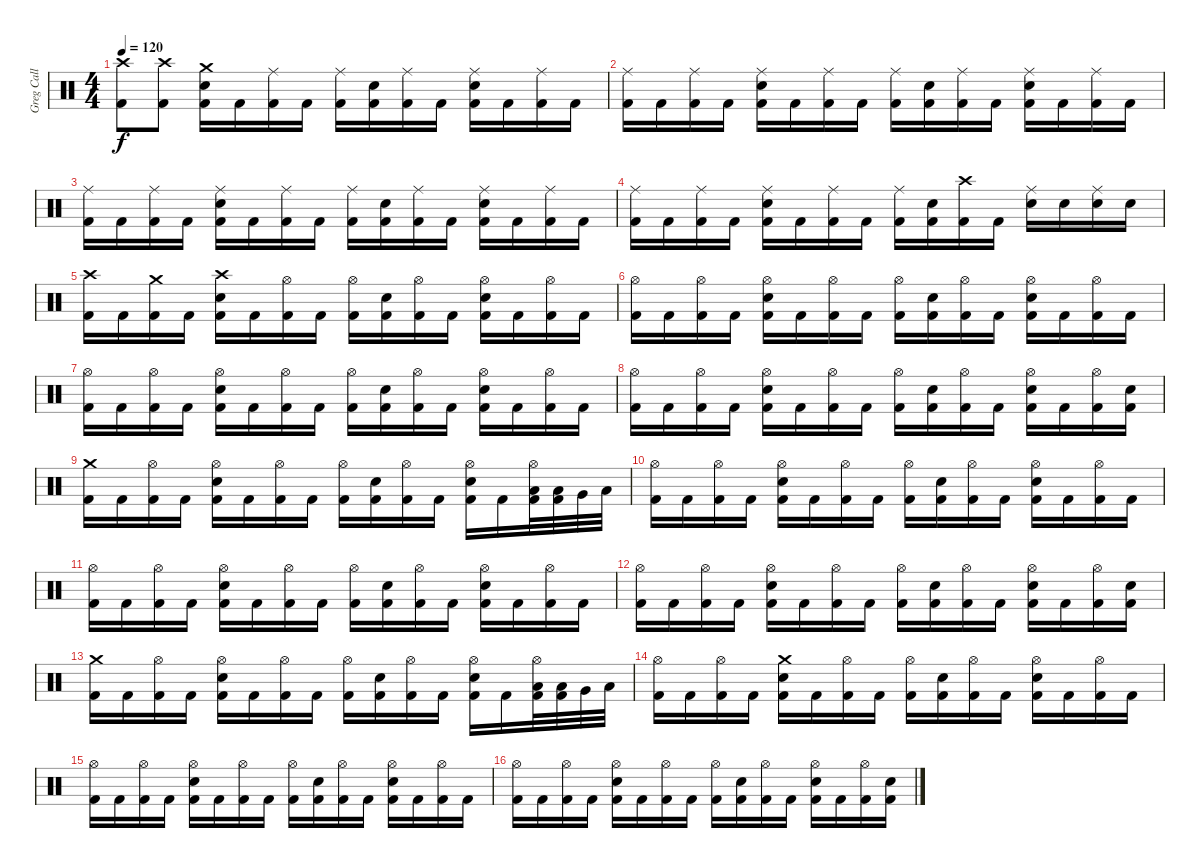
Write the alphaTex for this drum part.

\track ("Greg Call" "Greg Call") {instrument percussion}
\staff {score}
\articulation defaults
\ts (4 4)
\tempo 120
\clef neutral
\ks c
("Crash high (hit)" "Kick (hit) 2").8{dy f} ("Crash high (hit)" "Kick (hit) 2").8 ("Crash medium (hit)" "Snare (hit) 2" "Kick (hit) 2").16 "Kick (hit) 2".16 ("Ride (middle)" "Kick (hit) 2").16 "Kick (hit) 2".16 ("Ride (middle)" "Kick (hit) 2").16 ("Snare (hit) 2" "Kick (hit) 2").16 ("Ride (middle)" "Kick (hit) 2").16 "Kick (hit) 2".16 ("Snare (hit) 2" "Ride (middle)" "Kick (hit) 2").16 "Kick (hit) 2".16 ("Ride (middle)" "Kick (hit) 2").16 "Kick (hit) 2".16 |
("Ride (middle)" "Kick (hit) 2").16 "Kick (hit) 2".16 ("Ride (middle)" "Kick (hit) 2").16 "Kick (hit) 2".16 ("Ride (middle)" "Snare (hit) 2" "Kick (hit) 2").16 "Kick (hit) 2".16 ("Ride (middle)" "Kick (hit) 2").16 "Kick (hit) 2".16 ("Ride (middle)" "Kick (hit) 2").16 ("Snare (hit) 2" "Kick (hit) 2").16 ("Ride (middle)" "Kick (hit) 2").16 "Kick (hit) 2".16 ("Ride (middle)" "Snare (hit) 2" "Kick (hit) 2").16 "Kick (hit) 2".16 ("Ride (middle)" "Kick (hit) 2").16 "Kick (hit) 2".16 |
("Ride (middle)" "Kick (hit) 2").16 "Kick (hit) 2".16 ("Ride (middle)" "Kick (hit) 2").16 "Kick (hit) 2".16 ("Ride (middle)" "Snare (hit) 2" "Kick (hit) 2").16 "Kick (hit) 2".16 ("Ride (middle)" "Kick (hit) 2").16 "Kick (hit) 2".16 ("Ride (middle)" "Kick (hit) 2").16 ("Snare (hit) 2" "Kick (hit) 2").16 ("Ride (middle)" "Kick (hit) 2").16 "Kick (hit) 2".16 ("Ride (middle)" "Snare (hit) 2" "Kick (hit) 2").16 "Kick (hit) 2".16 ("Ride (middle)" "Kick (hit) 2").16 "Kick (hit) 2".16 |
("Ride (middle)" "Kick (hit) 2").16 "Kick (hit) 2".16 ("Ride (middle)" "Kick (hit) 2").16 "Kick (hit) 2".16 ("Ride (middle)" "Snare (hit) 2" "Kick (hit) 2").16 "Kick (hit) 2".16 ("Ride (middle)" "Kick (hit) 2").16 "Kick (hit) 2".16 ("Ride (middle)" "Kick (hit) 2").16 ("Snare (hit) 2" "Kick (hit) 2").16 ("Crash high (hit)" "Kick (hit) 2").16 "Kick (hit) 2".16 ("Ride (middle)" "Snare (hit) 2").16 "Snare (hit) 2".16 ("Ride (middle)" "Snare (hit) 2").16 "Snare (hit) 2".16 |
("Crash high (hit)" "Kick (hit) 2").16 "Kick (hit) 2".16 ("Crash medium (hit)" "Kick (hit) 2").16 "Kick (hit) 2".16 ("Crash high (hit)" "Snare (hit) 2" "Kick (hit) 2").16 "Kick (hit) 2".16 ("Hi-Hat (open)" "Kick (hit) 2").16 "Kick (hit) 2".16 ("Hi-Hat (open)" "Kick (hit) 2").16 ("Snare (hit) 2" "Kick (hit) 2").16 ("Hi-Hat (open)" "Kick (hit) 2").16 "Kick (hit) 2".16 ("Hi-Hat (open)" "Snare (hit) 2" "Kick (hit) 2").16 "Kick (hit) 2".16 ("Hi-Hat (open)" "Kick (hit) 2").16 "Kick (hit) 2".16 |
("Hi-Hat (open)" "Kick (hit) 2").16 "Kick (hit) 2".16 ("Hi-Hat (open)" "Kick (hit) 2").16 "Kick (hit) 2".16 ("Hi-Hat (open)" "Snare (hit) 2" "Kick (hit) 2").16 "Kick (hit) 2".16 ("Hi-Hat (open)" "Kick (hit) 2").16 "Kick (hit) 2".16 ("Hi-Hat (open)" "Kick (hit) 2").16 ("Snare (hit) 2" "Kick (hit) 2").16 ("Hi-Hat (open)" "Kick (hit) 2").16 "Kick (hit) 2".16 ("Hi-Hat (open)" "Snare (hit) 2" "Kick (hit) 2").16 "Kick (hit) 2".16 ("Hi-Hat (open)" "Kick (hit) 2").16 "Kick (hit) 2".16 |
("Hi-Hat (open)" "Kick (hit) 2").16 "Kick (hit) 2".16 ("Hi-Hat (open)" "Kick (hit) 2").16 "Kick (hit) 2".16 ("Hi-Hat (open)" "Snare (hit) 2" "Kick (hit) 2").16 "Kick (hit) 2".16 ("Hi-Hat (open)" "Kick (hit) 2").16 "Kick (hit) 2".16 ("Hi-Hat (open)" "Kick (hit) 2").16 ("Snare (hit) 2" "Kick (hit) 2").16 ("Hi-Hat (open)" "Kick (hit) 2").16 "Kick (hit) 2".16 ("Hi-Hat (open)" "Snare (hit) 2" "Kick (hit) 2").16 "Kick (hit) 2".16 ("Hi-Hat (open)" "Kick (hit) 2").16 "Kick (hit) 2".16 |
("Hi-Hat (open)" "Kick (hit) 2").16 "Kick (hit) 2".16 ("Hi-Hat (open)" "Kick (hit) 2").16 "Kick (hit) 2".16 ("Hi-Hat (open)" "Snare (hit) 2" "Kick (hit) 2").16 "Kick (hit) 2".16 ("Hi-Hat (open)" "Kick (hit) 2").16 "Kick (hit) 2".16 ("Hi-Hat (open)" "Kick (hit) 2").16 ("Snare (hit) 2" "Kick (hit) 2").16 ("Hi-Hat (open)" "Kick (hit) 2").16 "Kick (hit) 2".16 ("Hi-Hat (open)" "Snare (hit) 2" "Kick (hit) 2").16 "Kick (hit) 2".16 ("Hi-Hat (open)" "Kick (hit) 2").16 ("Snare (hit) 2" "Kick (hit) 2").16 |
("Crash medium (hit)" "Kick (hit) 2").16 "Kick (hit) 2".16 ("Hi-Hat (open)" "Kick (hit) 2").16 "Kick (hit) 2".16 ("Hi-Hat (open)" "Snare (hit) 2" "Kick (hit) 2").16 "Kick (hit) 2".16 ("Hi-Hat (open)" "Kick (hit) 2").16 "Kick (hit) 2".16 ("Hi-Hat (open)" "Kick (hit) 2").16 ("Snare (hit) 2" "Kick (hit) 2").16 ("Hi-Hat (open)" "Kick (hit) 2").16 "Kick (hit) 2".16 ("Hi-Hat (open)" "Snare (hit) 2" "Kick (hit) 2").16 "Kick (hit) 2".16 ("Hi-Hat (open)" "Low Tom (hit)" "Kick (hit) 2").32 ("Low Tom (hit)" "Kick (hit) 2").32 "Very Low Tom (hit)".32 "Low Floor Tom (hit)".32 |
("Hi-Hat (open)" "Kick (hit) 2").16 "Kick (hit) 2".16 ("Hi-Hat (open)" "Kick (hit) 2").16 "Kick (hit) 2".16 ("Hi-Hat (open)" "Snare (hit) 2" "Kick (hit) 2").16 "Kick (hit) 2".16 ("Hi-Hat (open)" "Kick (hit) 2").16 "Kick (hit) 2".16 ("Hi-Hat (open)" "Kick (hit) 2").16 ("Snare (hit) 2" "Kick (hit) 2").16 ("Hi-Hat (open)" "Kick (hit) 2").16 "Kick (hit) 2".16 ("Hi-Hat (open)" "Snare (hit) 2" "Kick (hit) 2").16 "Kick (hit) 2".16 ("Hi-Hat (open)" "Kick (hit) 2").16 "Kick (hit) 2".16 |
("Hi-Hat (open)" "Kick (hit) 2").16 "Kick (hit) 2".16 ("Hi-Hat (open)" "Kick (hit) 2").16 "Kick (hit) 2".16 ("Hi-Hat (open)" "Snare (hit) 2" "Kick (hit) 2").16 "Kick (hit) 2".16 ("Hi-Hat (open)" "Kick (hit) 2").16 "Kick (hit) 2".16 ("Hi-Hat (open)" "Kick (hit) 2").16 ("Snare (hit) 2" "Kick (hit) 2").16 ("Hi-Hat (open)" "Kick (hit) 2").16 "Kick (hit) 2".16 ("Hi-Hat (open)" "Snare (hit) 2" "Kick (hit) 2").16 "Kick (hit) 2".16 ("Hi-Hat (open)" "Kick (hit) 2").16 "Kick (hit) 2".16 |
("Hi-Hat (open)" "Kick (hit) 2").16 "Kick (hit) 2".16 ("Hi-Hat (open)" "Kick (hit) 2").16 "Kick (hit) 2".16 ("Hi-Hat (open)" "Snare (hit) 2" "Kick (hit) 2").16 "Kick (hit) 2".16 ("Hi-Hat (open)" "Kick (hit) 2").16 "Kick (hit) 2".16 ("Hi-Hat (open)" "Kick (hit) 2").16 ("Snare (hit) 2" "Kick (hit) 2").16 ("Hi-Hat (open)" "Kick (hit) 2").16 "Kick (hit) 2".16 ("Hi-Hat (open)" "Snare (hit) 2" "Kick (hit) 2").16 "Kick (hit) 2".16 ("Hi-Hat (open)" "Kick (hit) 2").16 ("Snare (hit) 2" "Kick (hit) 2").16 |
("Crash medium (hit)" "Kick (hit) 2").16 "Kick (hit) 2".16 ("Hi-Hat (open)" "Kick (hit) 2").16 "Kick (hit) 2".16 ("Hi-Hat (open)" "Snare (hit) 2" "Kick (hit) 2").16 "Kick (hit) 2".16 ("Hi-Hat (open)" "Kick (hit) 2").16 "Kick (hit) 2".16 ("Hi-Hat (open)" "Kick (hit) 2").16 ("Snare (hit) 2" "Kick (hit) 2").16 ("Hi-Hat (open)" "Kick (hit) 2").16 "Kick (hit) 2".16 ("Hi-Hat (open)" "Snare (hit) 2" "Kick (hit) 2").16 "Kick (hit) 2".16 ("Hi-Hat (open)" "Low Tom (hit)" "Kick (hit) 2").32 ("Low Tom (hit)" "Kick (hit) 2").32 "Very Low Tom (hit)".32 "Low Floor Tom (hit)".32 |
("Hi-Hat (open)" "Kick (hit) 2").16 "Kick (hit) 2".16 ("Hi-Hat (open)" "Kick (hit) 2").16 "Kick (hit) 2".16 ("Crash medium (hit)" "Snare (hit) 2" "Kick (hit) 2").16 "Kick (hit) 2".16 ("Hi-Hat (open)" "Kick (hit) 2").16 "Kick (hit) 2".16 ("Hi-Hat (open)" "Kick (hit) 2").16 ("Snare (hit) 2" "Kick (hit) 2").16 ("Hi-Hat (open)" "Kick (hit) 2").16 "Kick (hit) 2".16 ("Hi-Hat (open)" "Snare (hit) 2" "Kick (hit) 2").16 "Kick (hit) 2".16 ("Hi-Hat (open)" "Kick (hit) 2").16 "Kick (hit) 2".16 |
("Hi-Hat (open)" "Kick (hit) 2").16 "Kick (hit) 2".16 ("Hi-Hat (open)" "Kick (hit) 2").16 "Kick (hit) 2".16 ("Hi-Hat (open)" "Snare (hit) 2" "Kick (hit) 2").16 "Kick (hit) 2".16 ("Hi-Hat (open)" "Kick (hit) 2").16 "Kick (hit) 2".16 ("Hi-Hat (open)" "Kick (hit) 2").16 ("Snare (hit) 2" "Kick (hit) 2").16 ("Hi-Hat (open)" "Kick (hit) 2").16 "Kick (hit) 2".16 ("Hi-Hat (open)" "Snare (hit) 2" "Kick (hit) 2").16 "Kick (hit) 2".16 ("Hi-Hat (open)" "Kick (hit) 2").16 "Kick (hit) 2".16 |
("Hi-Hat (open)" "Kick (hit) 2").16 "Kick (hit) 2".16 ("Hi-Hat (open)" "Kick (hit) 2").16 "Kick (hit) 2".16 ("Hi-Hat (open)" "Snare (hit) 2" "Kick (hit) 2").16 "Kick (hit) 2".16 ("Hi-Hat (open)" "Kick (hit) 2").16 "Kick (hit) 2".16 ("Hi-Hat (open)" "Kick (hit) 2").16 ("Snare (hit) 2" "Kick (hit) 2").16 ("Hi-Hat (open)" "Kick (hit) 2").16 "Kick (hit) 2".16 ("Hi-Hat (open)" "Snare (hit) 2" "Kick (hit) 2").16 "Kick (hit) 2".16 ("Hi-Hat (open)" "Kick (hit) 2").16 ("Snare (hit) 2" "Kick (hit) 2").16
